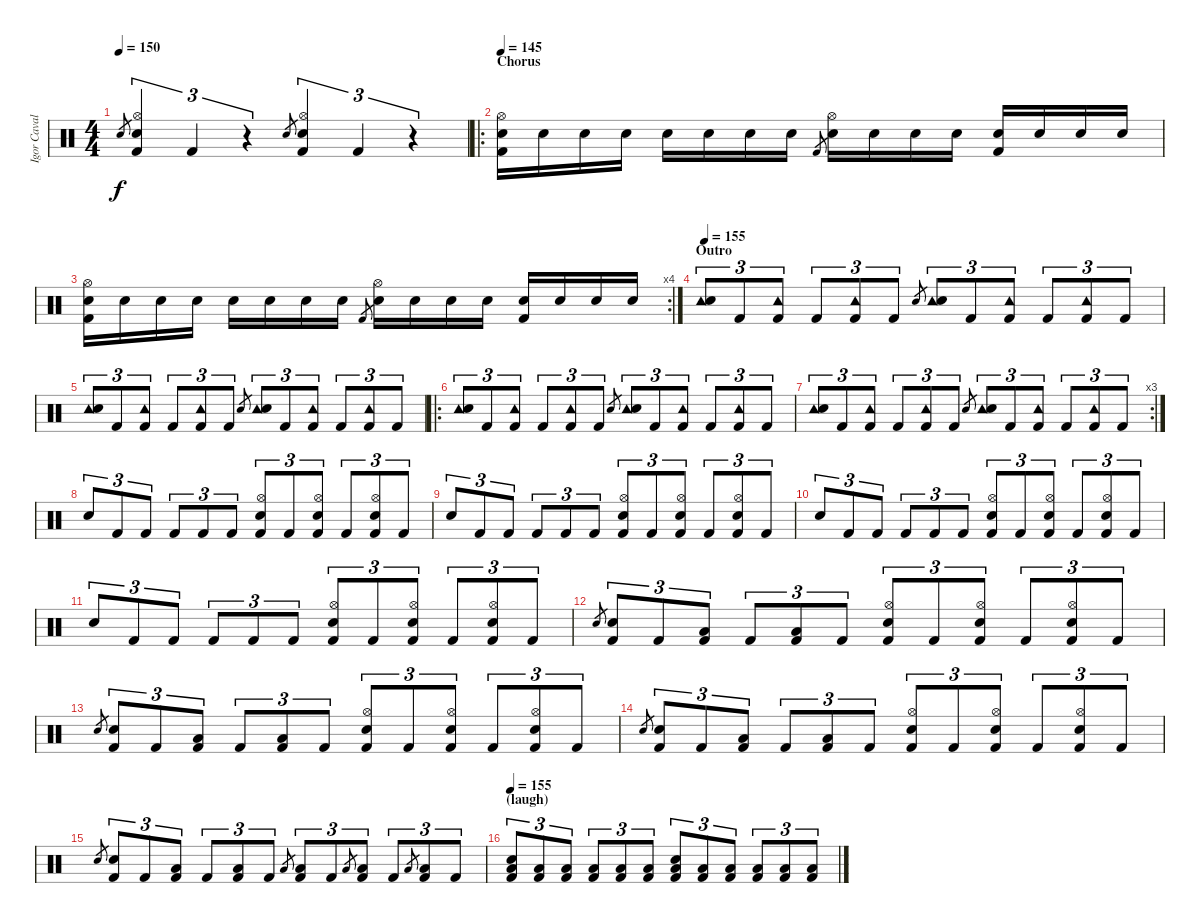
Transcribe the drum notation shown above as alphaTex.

\track ("Igor Cavalera - Drums" "Igor Caval") {instrument percussion}
\staff {score}
\articulation defaults
\ts (4 4)
\tempo 150
\clef neutral
\ks c "Electric Snare (hit)".8{gr dy f}
("Hi-Hat (open)" "Electric Snare (hit)" "Kick (hit) 2").4{tu (3 2)} "Kick (hit) 2".4{tu (3 2)} r.4{tu (3 2)} "Electric Snare (hit)".8{gr} ("Hi-Hat (open)" "Electric Snare (hit)" "Kick (hit) 2").4{tu (3 2)} "Kick (hit) 2".4{tu (3 2)} r.4{tu (3 2)} |
\ro
\section ("" "Chorus")
\tempo 145
("Hi-Hat (open)" "Snare (hit) 2" "Kick (hit) 2").16{volume 16 balance 8} "Snare (hit)".16 "Snare (hit)".16 "Snare (hit)".16 "Snare (hit)".16 "Snare (hit)".16 "Snare (hit)".16 "Snare (hit)".16 "Kick (hit) 2".8{gr} ("Hi-Hat (open)" "Electric Snare (hit)").16 "Snare (hit)".16 "Snare (hit)".16 "Snare (hit)".16 ("Snare (hit) 2" "Kick (hit) 2").16 "Snare (hit)".16 "Snare (hit)".16 "Snare (hit)".16 |
\rc 4
("Hi-Hat (open)" "Snare (hit) 2" "Kick (hit) 2").16 "Snare (hit)".16 "Snare (hit)".16 "Snare (hit)".16 "Snare (hit)".16 "Snare (hit)".16 "Snare (hit)".16 "Snare (hit)".16 "Kick (hit) 2".8{gr} ("Hi-Hat (open)" "Electric Snare (hit)").16 "Snare (hit)".16 "Snare (hit)".16 "Snare (hit)".16 ("Snare (hit) 2" "Kick (hit) 2").16 "Snare (hit)".16 "Snare (hit)".16 "Snare (hit)".16 |
\section ("" "Outro")
\tempo 155
("Tambourine (hit)" "Snare (hit) 2").8{tu (3 2) volume 16 balance 8} "Kick (hit) 2".8{tu (3 2)} ("Tambourine (hit)" "Kick (hit) 2").8{tu (3 2)} "Kick (hit) 2".8{tu (3 2)} ("Tambourine (hit)" "Kick (hit) 2").8{tu (3 2)} "Kick (hit) 2".8{tu (3 2)} "Electric Snare (hit)".8{gr} ("Tambourine (hit)" "Electric Snare (hit)").8{tu (3 2)} "Kick (hit) 2".8{tu (3 2)} ("Tambourine (hit)" "Kick (hit) 2").8{tu (3 2)} "Kick (hit) 2".8{tu (3 2)} ("Tambourine (hit)" "Kick (hit) 2").8{tu (3 2)} "Kick (hit) 2".8{tu (3 2)} |
("Tambourine (hit)" "Snare (hit) 2").8{tu (3 2)} "Kick (hit) 2".8{tu (3 2)} ("Tambourine (hit)" "Kick (hit) 2").8{tu (3 2)} "Kick (hit) 2".8{tu (3 2)} ("Tambourine (hit)" "Kick (hit) 2").8{tu (3 2)} "Kick (hit) 2".8{tu (3 2)} "Electric Snare (hit)".8{gr} ("Tambourine (hit)" "Electric Snare (hit)").8{tu (3 2)} "Kick (hit) 2".8{tu (3 2)} ("Tambourine (hit)" "Kick (hit) 2").8{tu (3 2)} "Kick (hit) 2".8{tu (3 2)} ("Tambourine (hit)" "Kick (hit) 2").8{tu (3 2)} "Kick (hit) 2".8{tu (3 2)} |
\ro
("Tambourine (hit)" "Snare (hit) 2").8{tu (3 2)} "Kick (hit) 2".8{tu (3 2)} ("Tambourine (hit)" "Kick (hit) 2").8{tu (3 2)} "Kick (hit) 2".8{tu (3 2)} ("Tambourine (hit)" "Kick (hit) 2").8{tu (3 2)} "Kick (hit) 2".8{tu (3 2)} "Electric Snare (hit)".8{gr} ("Tambourine (hit)" "Electric Snare (hit)").8{tu (3 2)} "Kick (hit) 2".8{tu (3 2)} ("Tambourine (hit)" "Kick (hit) 2").8{tu (3 2)} "Kick (hit) 2".8{tu (3 2)} ("Tambourine (hit)" "Kick (hit) 2").8{tu (3 2)} "Kick (hit) 2".8{tu (3 2)} |
\rc 3
("Tambourine (hit)" "Snare (hit) 2").8{tu (3 2)} "Kick (hit) 2".8{tu (3 2)} ("Tambourine (hit)" "Kick (hit) 2").8{tu (3 2)} "Kick (hit) 2".8{tu (3 2)} ("Tambourine (hit)" "Kick (hit) 2").8{tu (3 2)} "Kick (hit) 2".8{tu (3 2)} "Electric Snare (hit)".8{gr} ("Tambourine (hit)" "Electric Snare (hit)").8{tu (3 2)} "Kick (hit) 2".8{tu (3 2)} ("Tambourine (hit)" "Kick (hit) 2").8{tu (3 2)} "Kick (hit) 2".8{tu (3 2)} ("Tambourine (hit)" "Kick (hit) 2").8{tu (3 2)} "Kick (hit) 2".8{tu (3 2)} |
"Snare (hit) 2".8{tu (3 2)} "Kick (hit) 2".8{tu (3 2)} "Kick (hit) 2".8{tu (3 2)} "Kick (hit) 2".8{tu (3 2)} "Kick (hit) 2".8{tu (3 2)} "Kick (hit) 2".8{tu (3 2)} ("Hi-Hat (open)" "Electric Snare (hit)" "Kick (hit) 2").8{tu (3 2)} "Kick (hit) 2".8{tu (3 2)} ("Hi-Hat (open)" "Electric Snare (hit)" "Kick (hit) 2").8{tu (3 2)} "Kick (hit) 2".8{tu (3 2)} ("Hi-Hat (open)" "Electric Snare (hit)" "Kick (hit) 2").8{tu (3 2)} "Kick (hit) 2".8{tu (3 2)} |
"Snare (hit) 2".8{tu (3 2)} "Kick (hit) 2".8{tu (3 2)} "Kick (hit) 2".8{tu (3 2)} "Kick (hit) 2".8{tu (3 2)} "Kick (hit) 2".8{tu (3 2)} "Kick (hit) 2".8{tu (3 2)} ("Hi-Hat (open)" "Electric Snare (hit)" "Kick (hit) 2").8{tu (3 2)} "Kick (hit) 2".8{tu (3 2)} ("Hi-Hat (open)" "Electric Snare (hit)" "Kick (hit) 2").8{tu (3 2)} "Kick (hit) 2".8{tu (3 2)} ("Hi-Hat (open)" "Electric Snare (hit)" "Kick (hit) 2").8{tu (3 2)} "Kick (hit) 2".8{tu (3 2)} |
"Snare (hit) 2".8{tu (3 2)} "Kick (hit) 2".8{tu (3 2)} "Kick (hit) 2".8{tu (3 2)} "Kick (hit) 2".8{tu (3 2)} "Kick (hit) 2".8{tu (3 2)} "Kick (hit) 2".8{tu (3 2)} ("Hi-Hat (open)" "Electric Snare (hit)" "Kick (hit) 2").8{tu (3 2)} "Kick (hit) 2".8{tu (3 2)} ("Hi-Hat (open)" "Electric Snare (hit)" "Kick (hit) 2").8{tu (3 2)} "Kick (hit) 2".8{tu (3 2)} ("Hi-Hat (open)" "Electric Snare (hit)" "Kick (hit) 2").8{tu (3 2)} "Kick (hit) 2".8{tu (3 2)} |
"Snare (hit) 2".8{tu (3 2)} "Kick (hit) 2".8{tu (3 2)} "Kick (hit) 2".8{tu (3 2)} "Kick (hit) 2".8{tu (3 2)} "Kick (hit) 2".8{tu (3 2)} "Kick (hit) 2".8{tu (3 2)} ("Hi-Hat (open)" "Electric Snare (hit)" "Kick (hit) 2").8{tu (3 2)} "Kick (hit) 2".8{tu (3 2)} ("Hi-Hat (open)" "Electric Snare (hit)" "Kick (hit) 2").8{tu (3 2)} "Kick (hit) 2".8{tu (3 2)} ("Hi-Hat (open)" "Electric Snare (hit)" "Kick (hit) 2").8{tu (3 2)} "Kick (hit) 2".8{tu (3 2)} |
"Snare (hit) 2".8{gr} ("Snare (hit) 2" "Kick (hit) 2").8{tu (3 2)} "Kick (hit) 2".8{tu (3 2)} ("Low Floor Tom (hit)" "Kick (hit) 2").8{tu (3 2)} "Kick (hit) 2".8{tu (3 2)} ("Low Floor Tom (hit)" "Kick (hit) 2").8{tu (3 2)} "Kick (hit) 2".8{tu (3 2)} ("Hi-Hat (open)" "Electric Snare (hit)" "Kick (hit) 2").8{tu (3 2)} "Kick (hit) 2".8{tu (3 2)} ("Hi-Hat (open)" "Electric Snare (hit)" "Kick (hit) 2").8{tu (3 2)} "Kick (hit) 2".8{tu (3 2)} ("Hi-Hat (open)" "Electric Snare (hit)" "Kick (hit) 2").8{tu (3 2)} "Kick (hit) 2".8{tu (3 2)} |
"Snare (hit) 2".8{gr} ("Snare (hit) 2" "Kick (hit) 2").8{tu (3 2)} "Kick (hit) 2".8{tu (3 2)} ("Low Floor Tom (hit)" "Kick (hit) 2").8{tu (3 2)} "Kick (hit) 2".8{tu (3 2)} ("Low Floor Tom (hit)" "Kick (hit) 2").8{tu (3 2)} "Kick (hit) 2".8{tu (3 2)} ("Hi-Hat (open)" "Electric Snare (hit)" "Kick (hit) 2").8{tu (3 2)} "Kick (hit) 2".8{tu (3 2)} ("Hi-Hat (open)" "Electric Snare (hit)" "Kick (hit) 2").8{tu (3 2)} "Kick (hit) 2".8{tu (3 2)} ("Hi-Hat (open)" "Electric Snare (hit)" "Kick (hit) 2").8{tu (3 2)} "Kick (hit) 2".8{tu (3 2)} |
"Snare (hit) 2".8{gr} ("Snare (hit) 2" "Kick (hit) 2").8{tu (3 2)} "Kick (hit) 2".8{tu (3 2)} ("Low Floor Tom (hit)" "Kick (hit) 2").8{tu (3 2)} "Kick (hit) 2".8{tu (3 2)} ("Low Floor Tom (hit)" "Kick (hit) 2").8{tu (3 2)} "Kick (hit) 2".8{tu (3 2)} ("Hi-Hat (open)" "Electric Snare (hit)" "Kick (hit) 2").8{tu (3 2)} "Kick (hit) 2".8{tu (3 2)} ("Hi-Hat (open)" "Electric Snare (hit)" "Kick (hit) 2").8{tu (3 2)} "Kick (hit) 2".8{tu (3 2)} ("Hi-Hat (open)" "Electric Snare (hit)" "Kick (hit) 2").8{tu (3 2)} "Kick (hit) 2".8{tu (3 2)} |
"Snare (hit) 2".8{gr} ("Snare (hit) 2" "Kick (hit) 2").8{tu (3 2)} "Kick (hit) 2".8{tu (3 2)} ("Low Floor Tom (hit)" "Kick (hit) 2").8{tu (3 2)} "Kick (hit) 2".8{tu (3 2)} ("Low Floor Tom (hit)" "Kick (hit) 2").8{tu (3 2)} "Kick (hit) 2".8{tu (3 2)} "Low Floor Tom (hit)".8{gr} ("Low Floor Tom (hit)" "Kick (hit) 2").8{tu (3 2)} "Kick (hit) 2".8{tu (3 2)} "Low Floor Tom (hit)".8{gr} ("Low Floor Tom (hit)" "Kick (hit) 2").8{tu (3 2)} "Kick (hit) 2".8{tu (3 2)} "Low Floor Tom (hit)".8{gr} ("Low Floor Tom (hit)" "Kick (hit) 2").8{tu (3 2)} "Kick (hit) 2".8{tu (3 2)} |
\section ("" "(laugh)")
\tempo 155
("Snare (hit) 2" "Low Floor Tom (hit)" "Kick (hit) 2").8{tu (3 2)} ("Low Floor Tom (hit)" "Kick (hit) 2").8{tu (3 2)} ("Low Floor Tom (hit)" "Kick (hit) 2").8{tu (3 2)} ("Low Floor Tom (hit)" "Kick (hit) 2").8{tu (3 2)} ("Low Floor Tom (hit)" "Kick (hit) 2").8{tu (3 2)} ("Low Floor Tom (hit)" "Kick (hit) 2").8{tu (3 2)} ("Electric Snare (hit)" "Low Floor Tom (hit)" "Kick (hit) 2").8{tu (3 2)} ("Low Floor Tom (hit)" "Kick (hit) 2").8{tu (3 2)} ("Low Floor Tom (hit)" "Kick (hit) 2").8{tu (3 2)} ("Low Floor Tom (hit)" "Kick (hit) 2").8{tu (3 2)} ("Low Floor Tom (hit)" "Kick (hit) 2").8{tu (3 2)} ("Low Floor Tom (hit)" "Kick (hit) 2").8{tu (3 2)}
